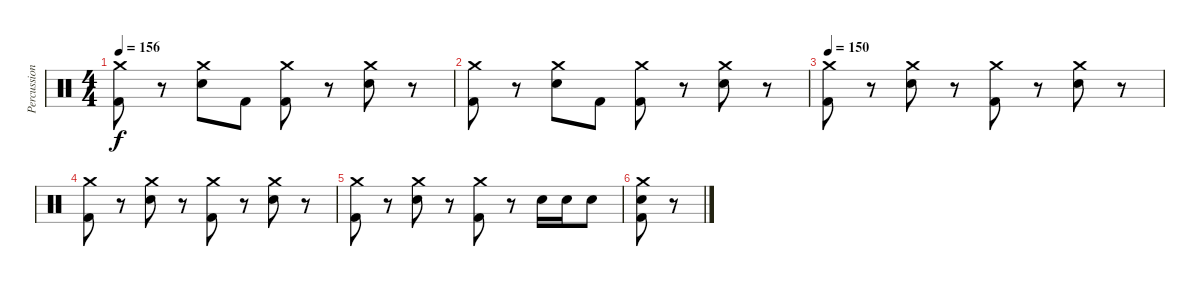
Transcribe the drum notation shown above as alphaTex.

\track ("Percussions" "Percussion") {instrument percussion}
\staff {score}
\articulation defaults
\ts (4 4)
\tempo 156
\clef neutral
\ks c
("Crash medium (hit)" "Kick (hit) 2").8{dy f} r.8 ("Crash medium (hit)" "Electric Snare (hit)").8 "Kick (hit) 2".8 ("Crash medium (hit)" "Kick (hit) 2").8 r.8 ("Crash medium (hit)" "Electric Snare (hit)").8 r.8 |
("Crash medium (hit)" "Kick (hit) 2").8 r.8 ("Crash medium (hit)" "Electric Snare (hit)").8 "Kick (hit) 2".8 ("Crash medium (hit)" "Kick (hit) 2").8 r.8 ("Crash medium (hit)" "Electric Snare (hit)").8 r.8 |
\tempo 150
("Crash medium (hit)" "Kick (hit) 2").8 r.8 ("Crash medium (hit)" "Electric Snare (hit)").8 r.8 ("Crash medium (hit)" "Kick (hit) 2").8 r.8 ("Crash medium (hit)" "Electric Snare (hit)").8 r.8 |
("Crash medium (hit)" "Kick (hit) 2").8 r.8 ("Crash medium (hit)" "Electric Snare (hit)").8 r.8 ("Crash medium (hit)" "Kick (hit) 2").8 r.8 ("Crash medium (hit)" "Electric Snare (hit)").8 r.8 |
("Crash medium (hit)" "Kick (hit) 2").8 r.8 ("Crash medium (hit)" "Electric Snare (hit)").8 r.8 ("Crash medium (hit)" "Kick (hit) 2").8 r.8 "Electric Snare (hit)".16 "Electric Snare (hit)".16 "Electric Snare (hit)".8 |
("Crash medium (hit)" "Electric Snare (hit)" "Kick (hit) 2").8 r.8
